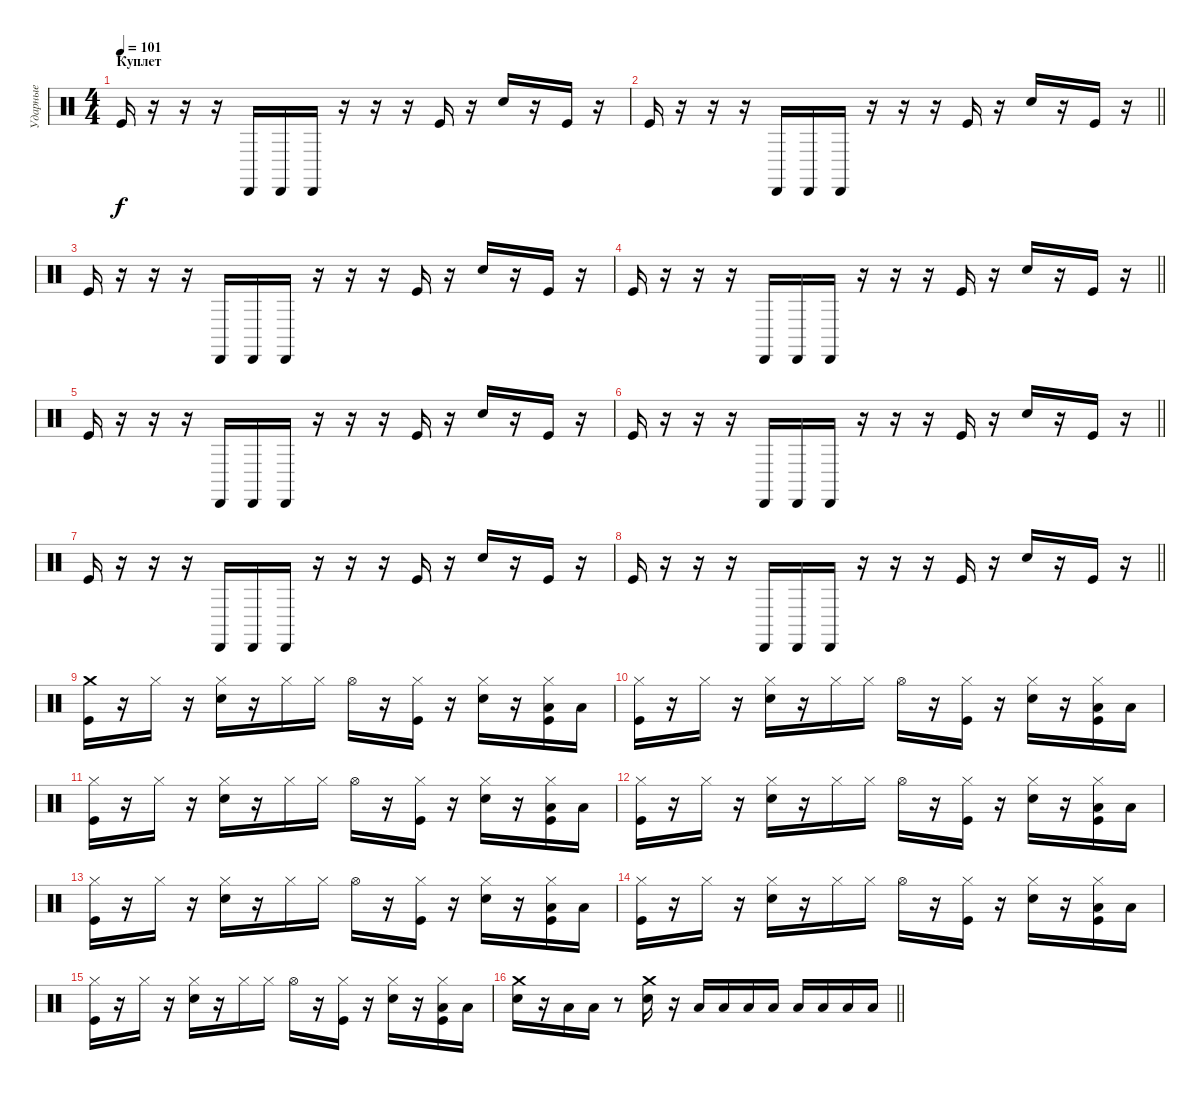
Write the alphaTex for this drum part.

\track ("Ударные" "Ударные") {instrument percussion}
\staff {score}
\articulation defaults
\ts (4 4)
\section ("" "Куплет")
\tempo 101
\clef neutral
\ks c "Kick (hit)".16{dy f}
r.16 r.16 r.16 "Cabasa (hit)".16 "Cabasa (hit)".16 "Cabasa (hit)".16 r.16 r.16 r.16 "Kick (hit)".16 r.16 "Electric Snare (hit)".16 r.16 "Kick (hit)".16 r.16 |
\barLineRight lightlight "Kick (hit)".16
r.16 r.16 r.16 "Cabasa (hit)".16 "Cabasa (hit)".16 "Cabasa (hit)".16 r.16 r.16 r.16 "Kick (hit)".16 r.16 "Electric Snare (hit)".16 r.16 "Kick (hit)".16 r.16 |
"Kick (hit)".16 r.16 r.16 r.16 "Cabasa (hit)".16 "Cabasa (hit)".16 "Cabasa (hit)".16 r.16 r.16 r.16 "Kick (hit)".16 r.16 "Electric Snare (hit)".16 r.16 "Kick (hit)".16 r.16 |
\barLineRight lightlight "Kick (hit)".16
r.16 r.16 r.16 "Cabasa (hit)".16 "Cabasa (hit)".16 "Cabasa (hit)".16 r.16 r.16 r.16 "Kick (hit)".16 r.16 "Electric Snare (hit)".16 r.16 "Kick (hit)".16 r.16 |
"Kick (hit)".16 r.16 r.16 r.16 "Cabasa (hit)".16 "Cabasa (hit)".16 "Cabasa (hit)".16 r.16 r.16 r.16 "Kick (hit)".16 r.16 "Electric Snare (hit)".16 r.16 "Kick (hit)".16 r.16 |
\barLineRight lightlight "Kick (hit)".16
r.16 r.16 r.16 "Cabasa (hit)".16 "Cabasa (hit)".16 "Cabasa (hit)".16 r.16 r.16 r.16 "Kick (hit)".16 r.16 "Electric Snare (hit)".16 r.16 "Kick (hit)".16 r.16 |
"Kick (hit)".16 r.16 r.16 r.16 "Cabasa (hit)".16 "Cabasa (hit)".16 "Cabasa (hit)".16 r.16 r.16 r.16 "Kick (hit)".16 r.16 "Electric Snare (hit)".16 r.16 "Kick (hit)".16 r.16 |
\barLineRight lightlight "Kick (hit)".16
r.16 r.16 r.16 "Cabasa (hit)".16 "Cabasa (hit)".16 "Cabasa (hit)".16 r.16 r.16 r.16 "Kick (hit)".16 r.16 "Electric Snare (hit)".16 r.16 "Kick (hit)".16 r.16 |
("Crash medium (hit)" "Kick (hit)").16 r.16 "Hi-Hat (closed)".16 r.16 ("Hi-Hat (closed)" "Electric Snare (hit)").16 r.16 "Hi-Hat (closed)".16 "Hi-Hat (closed)".16 "Hi-Hat (open)".16 r.16 ("Hi-Hat (closed)" "Kick (hit)").16 r.16 ("Hi-Hat (closed)" "Electric Snare (hit)").16 r.16 ("Hi-Hat (closed)" "Low Tom (hit)" "Kick (hit)").16 "Low Tom (hit)".16 |
("Hi-Hat (closed)" "Kick (hit)").16 r.16 "Hi-Hat (closed)".16 r.16 ("Hi-Hat (closed)" "Electric Snare (hit)").16 r.16 "Hi-Hat (closed)".16 "Hi-Hat (closed)".16 "Hi-Hat (open)".16 r.16 ("Hi-Hat (closed)" "Kick (hit)").16 r.16 ("Hi-Hat (closed)" "Electric Snare (hit)").16 r.16 ("Hi-Hat (closed)" "Low Tom (hit)" "Kick (hit)").16 "Low Tom (hit)".16 |
("Hi-Hat (closed)" "Kick (hit)").16 r.16 "Hi-Hat (closed)".16 r.16 ("Hi-Hat (closed)" "Electric Snare (hit)").16 r.16 "Hi-Hat (closed)".16 "Hi-Hat (closed)".16 "Hi-Hat (open)".16 r.16 ("Hi-Hat (closed)" "Kick (hit)").16 r.16 ("Hi-Hat (closed)" "Electric Snare (hit)").16 r.16 ("Hi-Hat (closed)" "Low Tom (hit)" "Kick (hit)").16 "Low Tom (hit)".16 |
("Hi-Hat (closed)" "Kick (hit)").16 r.16 "Hi-Hat (closed)".16 r.16 ("Hi-Hat (closed)" "Electric Snare (hit)").16 r.16 "Hi-Hat (closed)".16 "Hi-Hat (closed)".16 "Hi-Hat (open)".16 r.16 ("Hi-Hat (closed)" "Kick (hit)").16 r.16 ("Hi-Hat (closed)" "Electric Snare (hit)").16 r.16 ("Hi-Hat (closed)" "Low Tom (hit)" "Kick (hit)").16 "Low Tom (hit)".16 |
("Hi-Hat (closed)" "Kick (hit)").16 r.16 "Hi-Hat (closed)".16 r.16 ("Hi-Hat (closed)" "Electric Snare (hit)").16 r.16 "Hi-Hat (closed)".16 "Hi-Hat (closed)".16 "Hi-Hat (open)".16 r.16 ("Hi-Hat (closed)" "Kick (hit)").16 r.16 ("Hi-Hat (closed)" "Electric Snare (hit)").16 r.16 ("Hi-Hat (closed)" "Low Tom (hit)" "Kick (hit)").16 "Low Tom (hit)".16 |
("Hi-Hat (closed)" "Kick (hit)").16 r.16 "Hi-Hat (closed)".16 r.16 ("Hi-Hat (closed)" "Electric Snare (hit)").16 r.16 "Hi-Hat (closed)".16 "Hi-Hat (closed)".16 "Hi-Hat (open)".16 r.16 ("Hi-Hat (closed)" "Kick (hit)").16 r.16 ("Hi-Hat (closed)" "Electric Snare (hit)").16 r.16 ("Hi-Hat (closed)" "Low Tom (hit)" "Kick (hit)").16 "Low Tom (hit)".16 |
("Hi-Hat (closed)" "Kick (hit)").16 r.16 "Hi-Hat (closed)".16 r.16 ("Hi-Hat (closed)" "Electric Snare (hit)").16 r.16 "Hi-Hat (closed)".16 "Hi-Hat (closed)".16 "Hi-Hat (open)".16 r.16 ("Hi-Hat (closed)" "Kick (hit)").16 r.16 ("Hi-Hat (closed)" "Electric Snare (hit)").16 r.16 ("Hi-Hat (closed)" "Low Tom (hit)" "Kick (hit)").16 "Low Tom (hit)".16 |
\barLineRight lightlight
("Crash medium (hit)" "Electric Snare (hit)").16 r.16 "Low Tom (hit)".16 "Low Tom (hit)".16 r.8 ("Crash medium (hit)" "Electric Snare (hit)").16 r.16 "Low Tom (hit)".16 "Low Tom (hit)".16 "Low Tom (hit)".16 "Low Tom (hit)".16 "Low Tom (hit)".16 "Low Tom (hit)".16 "Low Tom (hit)".16 "Low Tom (hit)".16
